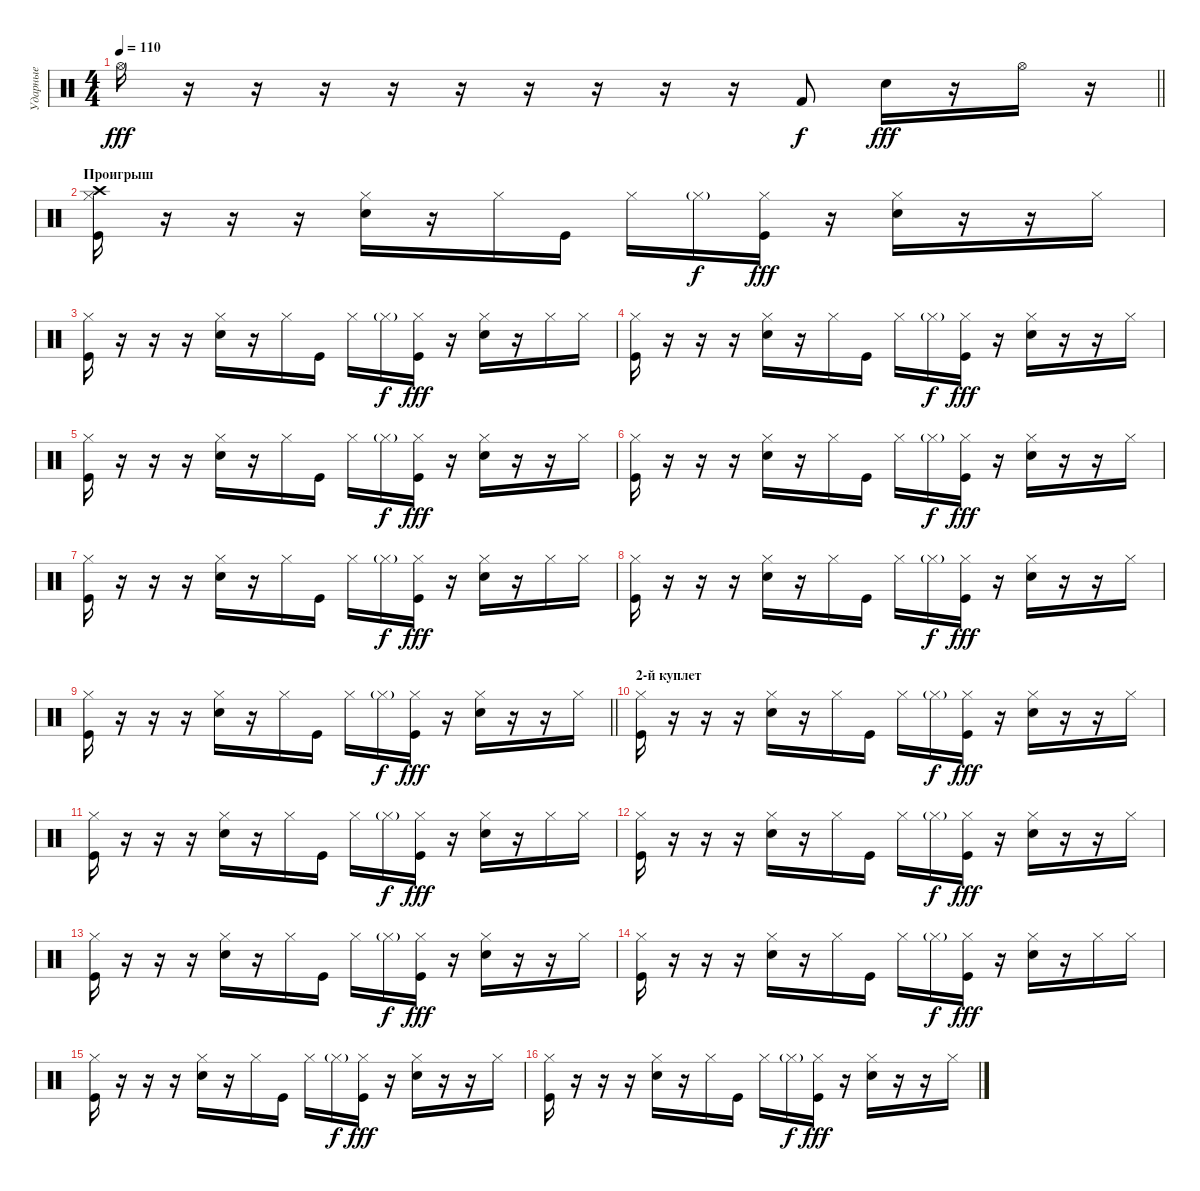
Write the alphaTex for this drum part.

\track ("Ударные" "Ударные") {instrument percussion}
\staff {score}
\articulation defaults
\ts (4 4)
\tempo 110
\clef neutral
\barLineRight lightlight
\ks c "Hi-Hat (open)".16{dy fff}
r.16 r.16 r.16 r.16 r.16 r.16 r.16 r.16 r.16 "Kick (hit) 2".8{dy f} "Electric Snare (hit)".16{dy fff} r.16 "Hi-Hat (open)".16 r.16 |
\section ("" "Проигрыш")
("Hi-Hat (closed)" "Kick (hit)" "Crash high (hit)").16 r.16 r.16 r.16 ("Hi-Hat (closed)" "Electric Snare (hit)").16 r.16 "Hi-Hat (closed)".16 "Kick (hit)".16 "Hi-Hat (closed)".16 "Hi-Hat (closed)"{g}.16{dy f} ("Hi-Hat (closed)" "Kick (hit)").16{dy fff} r.16 ("Hi-Hat (closed)" "Electric Snare (hit)").16 r.16 r.16 "Hi-Hat (closed)".16 |
("Hi-Hat (closed)" "Kick (hit)").16 r.16 r.16 r.16 ("Hi-Hat (closed)" "Electric Snare (hit)").16 r.16 "Hi-Hat (closed)".16 "Kick (hit)".16 "Hi-Hat (closed)".16 "Hi-Hat (closed)"{g}.16{dy f} ("Hi-Hat (closed)" "Kick (hit)").16{dy fff} r.16 ("Hi-Hat (closed)" "Electric Snare (hit)").16 r.16 "Hi-Hat (closed)".16 "Hi-Hat (closed)".16 |
("Hi-Hat (closed)" "Kick (hit)").16 r.16 r.16 r.16 ("Hi-Hat (closed)" "Electric Snare (hit)").16 r.16 "Hi-Hat (closed)".16 "Kick (hit)".16 "Hi-Hat (closed)".16 "Hi-Hat (closed)"{g}.16{dy f} ("Hi-Hat (closed)" "Kick (hit)").16{dy fff} r.16 ("Hi-Hat (closed)" "Electric Snare (hit)").16 r.16 r.16 "Hi-Hat (closed)".16 |
("Hi-Hat (closed)" "Kick (hit)").16 r.16 r.16 r.16 ("Hi-Hat (closed)" "Electric Snare (hit)").16 r.16 "Hi-Hat (closed)".16 "Kick (hit)".16 "Hi-Hat (closed)".16 "Hi-Hat (closed)"{g}.16{dy f} ("Hi-Hat (closed)" "Kick (hit)").16{dy fff} r.16 ("Hi-Hat (closed)" "Electric Snare (hit)").16 r.16 r.16 "Hi-Hat (closed)".16 |
("Hi-Hat (closed)" "Kick (hit)").16 r.16 r.16 r.16 ("Hi-Hat (closed)" "Electric Snare (hit)").16 r.16 "Hi-Hat (closed)".16 "Kick (hit)".16 "Hi-Hat (closed)".16 "Hi-Hat (closed)"{g}.16{dy f} ("Hi-Hat (closed)" "Kick (hit)").16{dy fff} r.16 ("Hi-Hat (closed)" "Electric Snare (hit)").16 r.16 r.16 "Hi-Hat (closed)".16 |
("Hi-Hat (closed)" "Kick (hit)").16 r.16 r.16 r.16 ("Hi-Hat (closed)" "Electric Snare (hit)").16 r.16 "Hi-Hat (closed)".16 "Kick (hit)".16 "Hi-Hat (closed)".16 "Hi-Hat (closed)"{g}.16{dy f} ("Hi-Hat (closed)" "Kick (hit)").16{dy fff} r.16 ("Hi-Hat (closed)" "Electric Snare (hit)").16 r.16 "Hi-Hat (closed)".16 "Hi-Hat (closed)".16 |
("Hi-Hat (closed)" "Kick (hit)").16 r.16 r.16 r.16 ("Hi-Hat (closed)" "Electric Snare (hit)").16 r.16 "Hi-Hat (closed)".16 "Kick (hit)".16 "Hi-Hat (closed)".16 "Hi-Hat (closed)"{g}.16{dy f} ("Hi-Hat (closed)" "Kick (hit)").16{dy fff} r.16 ("Hi-Hat (closed)" "Electric Snare (hit)").16 r.16 r.16 "Hi-Hat (closed)".16 |
\barLineRight lightlight
("Hi-Hat (closed)" "Kick (hit)").16 r.16 r.16 r.16 ("Hi-Hat (closed)" "Electric Snare (hit)").16 r.16 "Hi-Hat (closed)".16 "Kick (hit)".16 "Hi-Hat (closed)".16 "Hi-Hat (closed)"{g}.16{dy f} ("Hi-Hat (closed)" "Kick (hit)").16{dy fff} r.16 ("Hi-Hat (closed)" "Electric Snare (hit)").16 r.16 r.16 "Hi-Hat (closed)".16 |
\section ("" "2-й куплет")
("Hi-Hat (closed)" "Kick (hit)").16 r.16 r.16 r.16 ("Hi-Hat (closed)" "Electric Snare (hit)").16 r.16 "Hi-Hat (closed)".16 "Kick (hit)".16 "Hi-Hat (closed)".16 "Hi-Hat (closed)"{g}.16{dy f} ("Hi-Hat (closed)" "Kick (hit)").16{dy fff} r.16 ("Hi-Hat (closed)" "Electric Snare (hit)").16 r.16 r.16 "Hi-Hat (closed)".16 |
("Hi-Hat (closed)" "Kick (hit)").16 r.16 r.16 r.16 ("Hi-Hat (closed)" "Electric Snare (hit)").16 r.16 "Hi-Hat (closed)".16 "Kick (hit)".16 "Hi-Hat (closed)".16 "Hi-Hat (closed)"{g}.16{dy f} ("Hi-Hat (closed)" "Kick (hit)").16{dy fff} r.16 ("Hi-Hat (closed)" "Electric Snare (hit)").16 r.16 "Hi-Hat (closed)".16 "Hi-Hat (closed)".16 |
("Hi-Hat (closed)" "Kick (hit)").16 r.16 r.16 r.16 ("Hi-Hat (closed)" "Electric Snare (hit)").16 r.16 "Hi-Hat (closed)".16 "Kick (hit)".16 "Hi-Hat (closed)".16 "Hi-Hat (closed)"{g}.16{dy f} ("Hi-Hat (closed)" "Kick (hit)").16{dy fff} r.16 ("Hi-Hat (closed)" "Electric Snare (hit)").16 r.16 r.16 "Hi-Hat (closed)".16 |
("Hi-Hat (closed)" "Kick (hit)").16 r.16 r.16 r.16 ("Hi-Hat (closed)" "Electric Snare (hit)").16 r.16 "Hi-Hat (closed)".16 "Kick (hit)".16 "Hi-Hat (closed)".16 "Hi-Hat (closed)"{g}.16{dy f} ("Hi-Hat (closed)" "Kick (hit)").16{dy fff} r.16 ("Hi-Hat (closed)" "Electric Snare (hit)").16 r.16 r.16 "Hi-Hat (closed)".16 |
("Hi-Hat (closed)" "Kick (hit)").16 r.16 r.16 r.16 ("Hi-Hat (closed)" "Electric Snare (hit)").16 r.16 "Hi-Hat (closed)".16 "Kick (hit)".16 "Hi-Hat (closed)".16 "Hi-Hat (closed)"{g}.16{dy f} ("Hi-Hat (closed)" "Kick (hit)").16{dy fff} r.16 ("Hi-Hat (closed)" "Electric Snare (hit)").16 r.16 "Hi-Hat (closed)".16 "Hi-Hat (closed)".16 |
("Hi-Hat (closed)" "Kick (hit)").16 r.16 r.16 r.16 ("Hi-Hat (closed)" "Electric Snare (hit)").16 r.16 "Hi-Hat (closed)".16 "Kick (hit)".16 "Hi-Hat (closed)".16 "Hi-Hat (closed)"{g}.16{dy f} ("Hi-Hat (closed)" "Kick (hit)").16{dy fff} r.16 ("Hi-Hat (closed)" "Electric Snare (hit)").16 r.16 r.16 "Hi-Hat (closed)".16 |
("Hi-Hat (closed)" "Kick (hit)").16 r.16 r.16 r.16 ("Hi-Hat (closed)" "Electric Snare (hit)").16 r.16 "Hi-Hat (closed)".16 "Kick (hit)".16 "Hi-Hat (closed)".16 "Hi-Hat (closed)"{g}.16{dy f} ("Hi-Hat (closed)" "Kick (hit)").16{dy fff} r.16 ("Hi-Hat (closed)" "Electric Snare (hit)").16 r.16 r.16 "Hi-Hat (closed)".16
